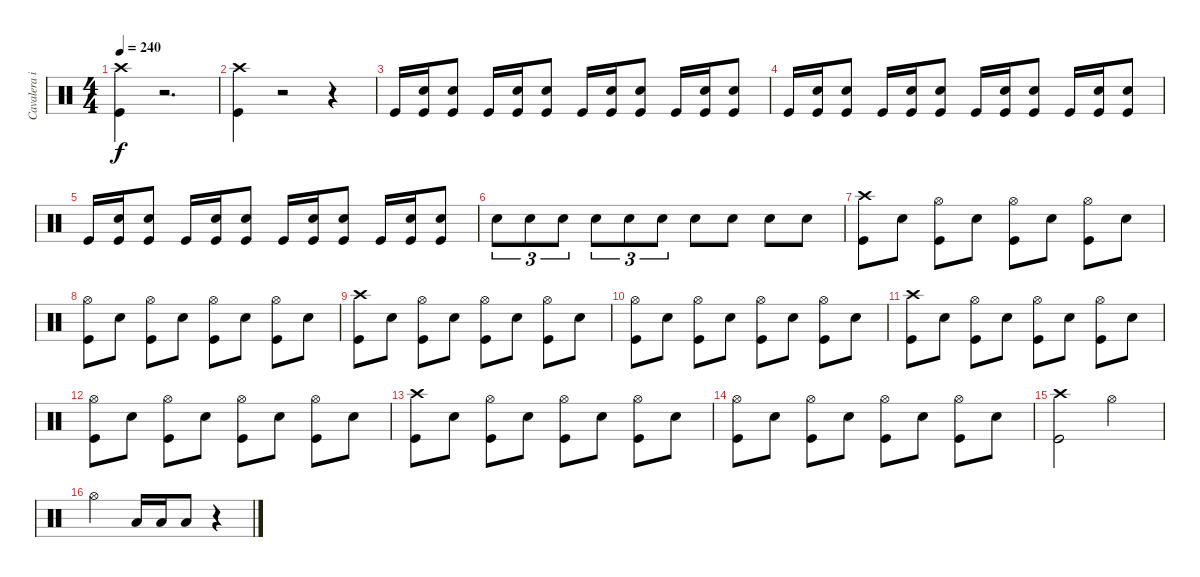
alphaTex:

\track ("Cavalera igor" "Cavalera i") {instrument percussion}
\staff {score}
\articulation defaults
\ts (4 4)
\tempo 240
\clef neutral
\ks c
("Crash high (hit)" "Kick (hit)").4{dy f} r.2{d volume 0} |
("Crash high (hit)" "Kick (hit)").4{volume 16} r.2{volume 0} r.4{volume 16} |
"Kick (hit)".16 ("Electric Snare (hit)" "Kick (hit)").16 ("Electric Snare (hit)" "Kick (hit)").8 "Kick (hit)".16 ("Electric Snare (hit)" "Kick (hit)").16 ("Electric Snare (hit)" "Kick (hit)").8 "Kick (hit)".16 ("Electric Snare (hit)" "Kick (hit)").16 ("Electric Snare (hit)" "Kick (hit)").8 "Kick (hit)".16 ("Electric Snare (hit)" "Kick (hit)").16 ("Electric Snare (hit)" "Kick (hit)").8 |
"Kick (hit)".16 ("Electric Snare (hit)" "Kick (hit)").16 ("Electric Snare (hit)" "Kick (hit)").8 "Kick (hit)".16 ("Electric Snare (hit)" "Kick (hit)").16 ("Electric Snare (hit)" "Kick (hit)").8 "Kick (hit)".16 ("Electric Snare (hit)" "Kick (hit)").16 ("Electric Snare (hit)" "Kick (hit)").8 "Kick (hit)".16 ("Electric Snare (hit)" "Kick (hit)").16 ("Electric Snare (hit)" "Kick (hit)").8 |
"Kick (hit)".16 ("Electric Snare (hit)" "Kick (hit)").16 ("Electric Snare (hit)" "Kick (hit)").8 "Kick (hit)".16 ("Electric Snare (hit)" "Kick (hit)").16 ("Electric Snare (hit)" "Kick (hit)").8 "Kick (hit)".16 ("Electric Snare (hit)" "Kick (hit)").16 ("Electric Snare (hit)" "Kick (hit)").8 "Kick (hit)".16 ("Electric Snare (hit)" "Kick (hit)").16 ("Electric Snare (hit)" "Kick (hit)").8 |
"Electric Snare (hit)".8{tu (3 2)} "Electric Snare (hit)".8{tu (3 2)} "Electric Snare (hit)".8{tu (3 2)} "Electric Snare (hit)".8{tu (3 2)} "Electric Snare (hit)".8{tu (3 2)} "Electric Snare (hit)".8{tu (3 2)} "Electric Snare (hit)".8 "Electric Snare (hit)".8 "Electric Snare (hit)".8 "Electric Snare (hit)".8 |
("Crash high (hit)" "Kick (hit)").8 "Electric Snare (hit)".8 ("Hi-Hat (open)" "Kick (hit)").8 "Electric Snare (hit)".8 ("Hi-Hat (open)" "Kick (hit)").8 "Electric Snare (hit)".8 ("Hi-Hat (open)" "Kick (hit)").8 "Electric Snare (hit)".8 |
("Hi-Hat (open)" "Kick (hit)").8 "Electric Snare (hit)".8 ("Hi-Hat (open)" "Kick (hit)").8 "Electric Snare (hit)".8 ("Hi-Hat (open)" "Kick (hit)").8 "Electric Snare (hit)".8 ("Hi-Hat (open)" "Kick (hit)").8 "Electric Snare (hit)".8 |
("Crash high (hit)" "Kick (hit)").8 "Electric Snare (hit)".8 ("Hi-Hat (open)" "Kick (hit)").8 "Electric Snare (hit)".8 ("Hi-Hat (open)" "Kick (hit)").8 "Electric Snare (hit)".8 ("Hi-Hat (open)" "Kick (hit)").8 "Electric Snare (hit)".8 |
("Hi-Hat (open)" "Kick (hit)").8 "Electric Snare (hit)".8 ("Hi-Hat (open)" "Kick (hit)").8 "Electric Snare (hit)".8 ("Hi-Hat (open)" "Kick (hit)").8 "Electric Snare (hit)".8 ("Hi-Hat (open)" "Kick (hit)").8 "Electric Snare (hit)".8 |
("Crash high (hit)" "Kick (hit)").8 "Electric Snare (hit)".8 ("Hi-Hat (open)" "Kick (hit)").8 "Electric Snare (hit)".8 ("Hi-Hat (open)" "Kick (hit)").8 "Electric Snare (hit)".8 ("Hi-Hat (open)" "Kick (hit)").8 "Electric Snare (hit)".8 |
("Hi-Hat (open)" "Kick (hit)").8 "Electric Snare (hit)".8 ("Hi-Hat (open)" "Kick (hit)").8 "Electric Snare (hit)".8 ("Hi-Hat (open)" "Kick (hit)").8 "Electric Snare (hit)".8 ("Hi-Hat (open)" "Kick (hit)").8 "Electric Snare (hit)".8 |
("Crash high (hit)" "Kick (hit)").8 "Electric Snare (hit)".8 ("Hi-Hat (open)" "Kick (hit)").8 "Electric Snare (hit)".8 ("Hi-Hat (open)" "Kick (hit)").8 "Electric Snare (hit)".8 ("Hi-Hat (open)" "Kick (hit)").8 "Electric Snare (hit)".8 |
("Hi-Hat (open)" "Kick (hit)").8 "Electric Snare (hit)".8 ("Hi-Hat (open)" "Kick (hit)").8 "Electric Snare (hit)".8 ("Hi-Hat (open)" "Kick (hit)").8 "Electric Snare (hit)".8 ("Hi-Hat (open)" "Kick (hit)").8 "Electric Snare (hit)".8 |
("Crash high (hit)" "Kick (hit)").2 "Hi-Hat (open)".2 |
"Hi-Hat (open)".2 "Low Tom (hit)".16 "Low Tom (hit)".16 "Low Tom (hit)".8 r.4
